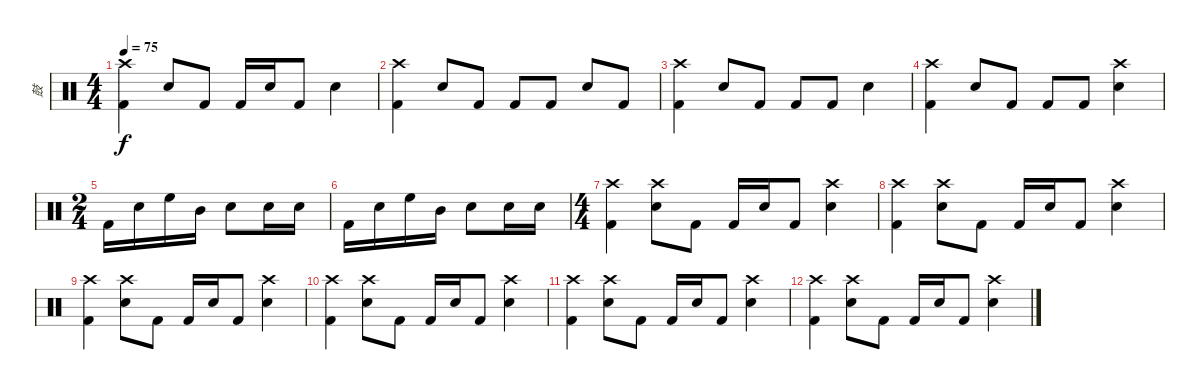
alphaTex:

\track ("鼓" "鼓") {instrument percussion}
\staff {score}
\articulation defaults
\ts (4 4)
\tempo 75
\clef neutral
\ks c
("Crash high (hit)" "Kick (hit) 2").4{dy f} "Snare (hit) 2".8 "Kick (hit) 2".8 "Kick (hit) 2".16 "Snare (hit) 2".16 "Kick (hit) 2".8 "Snare (hit) 2".4 |
("Crash high (hit)" "Kick (hit) 2").4 "Snare (hit) 2".8 "Kick (hit) 2".8 "Kick (hit) 2".8 "Kick (hit) 2".8 "Snare (hit) 2".8 "Kick (hit) 2".8 |
("Crash high (hit)" "Kick (hit) 2").4 "Snare (hit) 2".8 "Kick (hit) 2".8 "Kick (hit) 2".8 "Kick (hit) 2".8 "Snare (hit) 2".4 |
("Crash high (hit)" "Kick (hit) 2").4 "Snare (hit) 2".8 "Kick (hit) 2".8 "Kick (hit) 2".8 "Kick (hit) 2".8 ("Crash high (hit)" "Snare (hit) 2").4 |
\ts (2 4)
"Kick (hit) 2".16 "Snare (hit) 2".16 "High Floor Tom (hit)".16 "Mid Tom (hit)".16 "Snare (hit) 2".8 "Snare (hit) 2".16 "Snare (hit) 2".16 |
"Kick (hit) 2".16 "Snare (hit) 2".16 "High Floor Tom (hit)".16 "Mid Tom (hit)".16 "Snare (hit) 2".8 "Snare (hit) 2".16 "Snare (hit) 2".16 |
\ts (4 4)
("Crash high (hit)" "Kick (hit) 2").4 ("Crash high (hit)" "Snare (hit) 2").8 "Kick (hit) 2".8 "Kick (hit) 2".16 "Snare (hit) 2".16 "Kick (hit) 2".8 ("Crash high (hit)" "Snare (hit) 2").4 |
("Crash high (hit)" "Kick (hit) 2").4 ("Crash high (hit)" "Snare (hit) 2").8 "Kick (hit) 2".8 "Kick (hit) 2".16 "Snare (hit) 2".16 "Kick (hit) 2".8 ("Crash high (hit)" "Snare (hit) 2").4 |
("Crash high (hit)" "Kick (hit) 2").4 ("Crash high (hit)" "Snare (hit) 2").8 "Kick (hit) 2".8 "Kick (hit) 2".16 "Snare (hit) 2".16 "Kick (hit) 2".8 ("Crash high (hit)" "Snare (hit) 2").4 |
("Crash high (hit)" "Kick (hit) 2").4 ("Crash high (hit)" "Snare (hit) 2").8 "Kick (hit) 2".8 "Kick (hit) 2".16 "Snare (hit) 2".16 "Kick (hit) 2".8 ("Crash high (hit)" "Snare (hit) 2").4 |
("Crash high (hit)" "Kick (hit) 2").4 ("Crash high (hit)" "Snare (hit) 2").8 "Kick (hit) 2".8 "Kick (hit) 2".16 "Snare (hit) 2".16 "Kick (hit) 2".8 ("Crash high (hit)" "Snare (hit) 2").4 |
("Crash high (hit)" "Kick (hit) 2").4 ("Crash high (hit)" "Snare (hit) 2").8 "Kick (hit) 2".8 "Kick (hit) 2".16 "Snare (hit) 2".16 "Kick (hit) 2".8 ("Crash high (hit)" "Snare (hit) 2").4
